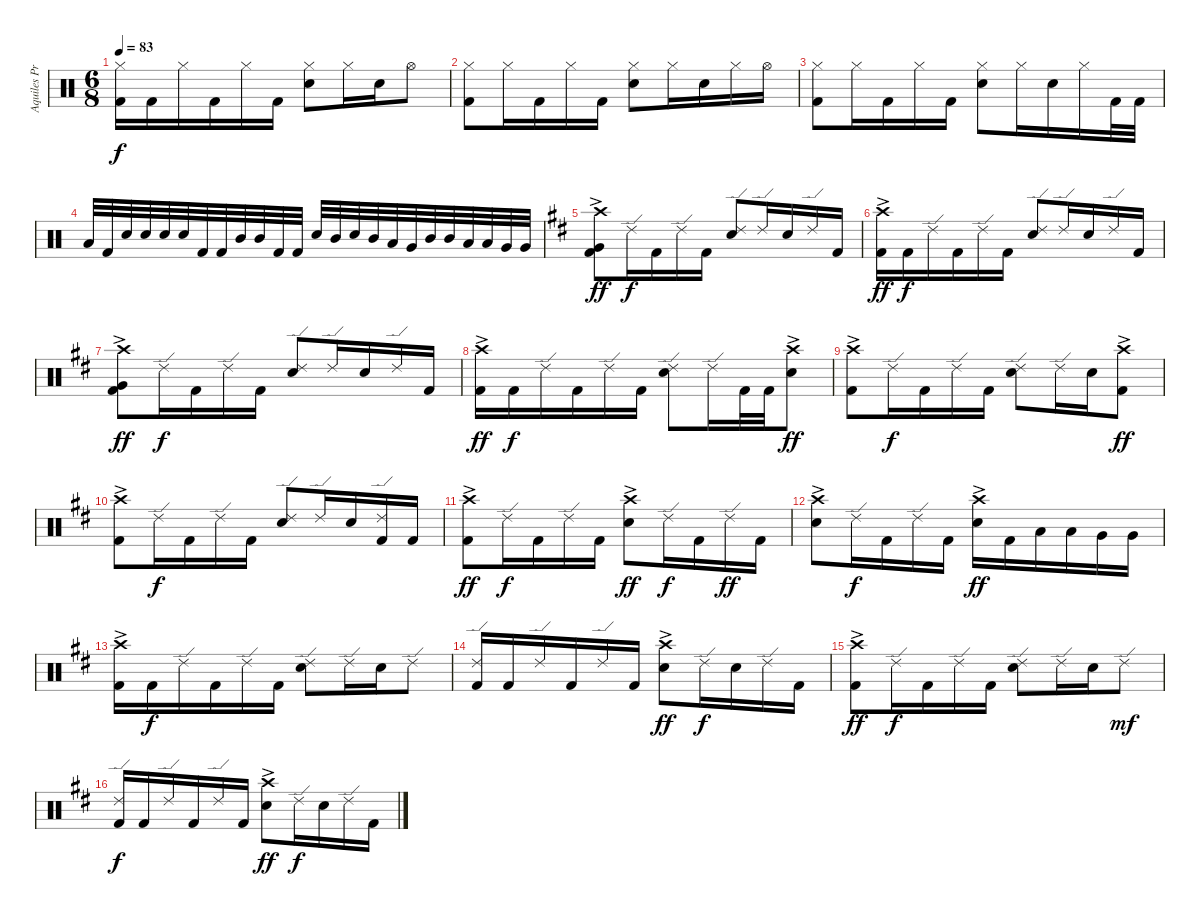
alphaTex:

\track ("Aquiles Priester" "Aquiles Pr") {instrument percussion}
\staff {score}
\articulation defaults
\ts (6 8)
\tempo 83
\clef neutral
\ks c
("Hi-Hat (closed)" "Kick (hit) 2").16{dy f} "Kick (hit) 2".16 "Hi-Hat (closed)".16 "Kick (hit) 2".16 "Hi-Hat (closed)".16 "Kick (hit) 2".16 ("Hi-Hat (closed)" "Electric Snare (hit)").8 "Hi-Hat (closed)".16 "Electric Snare (hit)".16 "Hi-Hat (open)".8 |
("Hi-Hat (closed)" "Kick (hit) 2").8 "Hi-Hat (closed)".16 "Kick (hit) 2".16 "Hi-Hat (closed)".16 "Kick (hit) 2".16 ("Hi-Hat (closed)" "Electric Snare (hit)").8 "Hi-Hat (closed)".16 "Electric Snare (hit)".16 "Hi-Hat (closed)".16 "Hi-Hat (open)".16 |
("Hi-Hat (closed)" "Kick (hit) 2").8 "Hi-Hat (closed)".16 "Kick (hit) 2".16 "Hi-Hat (closed)".16 "Kick (hit) 2".16 ("Hi-Hat (closed)" "Electric Snare (hit)").8 "Hi-Hat (closed)".16 "Electric Snare (hit)".16 "Hi-Hat (closed)".16 "Kick (hit) 2".32 "Kick (hit) 2".32 |
"Low Tom (hit)".32 "Kick (hit) 2".32 "Electric Snare (hit)".32 "Electric Snare (hit)".32 "Electric Snare (hit)".32 "Electric Snare (hit)".32 "Kick (hit) 2".32 "Kick (hit) 2".32 "Mid Tom (hit)".32 "Mid Tom (hit)".32 "Kick (hit) 2".32 "Kick (hit) 2".32 "Electric Snare (hit)".32 "Mid Tom (hit)".32 "Electric Snare (hit)".32 "Mid Tom (hit)".32 "Low Tom (hit)".32 "Very Low Tom (hit)".32 "Mid Tom (hit)".32 "Mid Tom (hit)".32 "Low Tom (hit)".32 "Low Tom (hit)".32 "Very Low Tom (hit)".32 "Very Low Tom (hit)".32 |
\ks d
("Crash high (hit)"{ac} "Very Low Tom (hit)"{ac} "Kick (hit) 2"{ac}).8{dy ff} "Ride (edge) 2".16{dy f} "Kick (hit) 2".16 "Ride (edge) 2".16 "Kick (hit) 2".16 ("Ride (edge) 2" "Electric Snare (hit)").8 "Ride (edge) 2".16 "Electric Snare (hit)".16 "Ride (edge) 2".16 "Kick (hit) 2".16 |
("Crash high (hit)"{ac} "Kick (hit) 2"{ac}).16{dy ff} "Kick (hit) 2".16{dy f} "Ride (edge) 2".16 "Kick (hit) 2".16 "Ride (edge) 2".16 "Kick (hit) 2".16 ("Ride (edge) 2" "Electric Snare (hit)").8 "Ride (edge) 2".16 "Electric Snare (hit)".16 "Ride (edge) 2".16 "Kick (hit) 2".16 |
("Crash high (hit)"{ac} "Very Low Tom (hit)"{ac} "Kick (hit) 2"{ac}).8{dy ff} "Ride (edge) 2".16{dy f} "Kick (hit) 2".16 "Ride (edge) 2".16 "Kick (hit) 2".16 ("Ride (edge) 2" "Electric Snare (hit)").8 "Ride (edge) 2".16 "Electric Snare (hit)".16 "Ride (edge) 2".16 "Kick (hit) 2".16 |
("Crash high (hit)"{ac} "Kick (hit) 2"{ac}).16{dy ff} "Kick (hit) 2".16{dy f} "Ride (edge) 2".16 "Kick (hit) 2".16 "Ride (edge) 2".16 "Kick (hit) 2".16 ("Ride (edge) 2" "Electric Snare (hit)").8 "Ride (edge) 2".16 "Kick (hit) 2".32 "Kick (hit) 2".32 ("Crash high (hit)"{ac} "Electric Snare (hit)"{ac}).8{dy ff} |
("Crash high (hit)"{ac} "Kick (hit) 2"{ac}).8 "Ride (edge) 2".16{dy f} "Kick (hit) 2".16 "Ride (edge) 2".16 "Kick (hit) 2".16 ("Ride (edge) 2" "Electric Snare (hit)").8 "Ride (edge) 2".16 "Electric Snare (hit)".16 ("Crash high (hit)"{ac} "Kick (hit) 2"{ac}).8{dy ff} |
("Crash high (hit)"{ac} "Kick (hit) 2"{ac}).8 "Ride (edge) 2".16{dy f} "Kick (hit) 2".16 "Ride (edge) 2".16 "Kick (hit) 2".16 ("Ride (edge) 2" "Electric Snare (hit)").8 "Ride (edge) 2".16 "Electric Snare (hit)".16 ("Ride (edge) 2" "Kick (hit) 2").16 "Kick (hit) 2".16 |
("Crash high (hit)"{ac} "Kick (hit) 2"{ac}).8{dy ff} "Ride (edge) 2".16{dy f} "Kick (hit) 2".16 "Ride (edge) 2".16 "Kick (hit) 2".16 ("Crash high (hit)"{ac} "Electric Snare (hit)"{ac}).8{dy ff} "Ride (edge) 2".16{dy f} "Kick (hit) 2".16 "Ride (edge) 2".16{dy ff} "Kick (hit) 2".16 |
("Crash high (hit)"{ac} "Electric Snare (hit)"{ac}).8 "Ride (edge) 2".16{dy f} "Kick (hit) 2".16 "Ride (edge) 2".16 "Kick (hit) 2".16 ("Crash high (hit)"{ac} "Electric Snare (hit)"{ac}).16{dy ff} "Kick (hit) 2".16 "Low Tom (hit)".16 "Low Tom (hit)".16 "Very Low Tom (hit)".16 "Very Low Tom (hit)".16 |
("Crash high (hit)"{ac} "Kick (hit) 2"{ac}).16 "Kick (hit) 2".16{dy f} "Ride (edge) 2".16 "Kick (hit) 2".16 "Ride (edge) 2".16 "Kick (hit) 2".16 ("Ride (edge) 2" "Electric Snare (hit)").8 "Ride (edge) 2".16 "Electric Snare (hit)".16 "Ride (edge) 2".8 |
("Ride (edge) 2" "Kick (hit) 2").16 "Kick (hit) 2".16 "Ride (edge) 2".16 "Kick (hit) 2".16 "Ride (edge) 2".16 "Kick (hit) 2".16 ("Crash high (hit)"{ac} "Electric Snare (hit)"{ac}).8{dy ff} "Ride (edge) 2".16{dy f} "Electric Snare (hit)".16 "Ride (edge) 2".16 "Kick (hit) 2".16 |
("Crash high (hit)"{ac} "Kick (hit) 2"{ac}).8{dy ff} "Ride (edge) 2".16{dy f} "Kick (hit) 2".16 "Ride (edge) 2".16 "Kick (hit) 2".16 ("Ride (edge) 2" "Electric Snare (hit)").8 "Ride (edge) 2".16 "Electric Snare (hit)".16 "Ride (edge) 2".8{dy mf} |
("Ride (edge) 2" "Kick (hit) 2").16{dy f} "Kick (hit) 2".16 "Ride (edge) 2".16 "Kick (hit) 2".16 "Ride (edge) 2".16 "Kick (hit) 2".16 ("Crash high (hit)"{ac} "Electric Snare (hit)"{ac}).8{dy ff} "Ride (edge) 2".16{dy f} "Electric Snare (hit)".16 "Ride (edge) 2".16 "Kick (hit) 2".16
